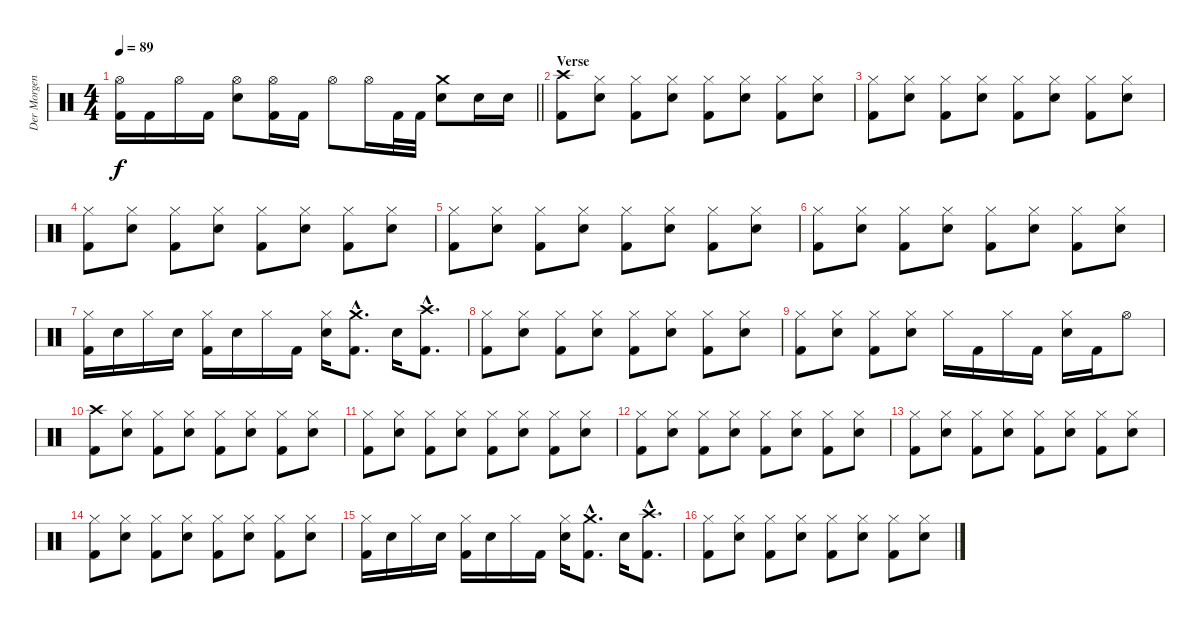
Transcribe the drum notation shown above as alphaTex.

\track ("Der Morgenstern" "Der Morgen") {instrument percussion}
\staff {score}
\articulation defaults
\ts (4 4)
\tempo 89
\clef neutral
\barLineRight lightlight
\ks c
("Hi-Hat (open)" "Kick (hit) 2").16{dy f} "Kick (hit) 2".16 "Hi-Hat (open)".16 "Kick (hit) 2".16 ("Hi-Hat (open)" "Electric Snare (hit)").8 ("Hi-Hat (open)" "Kick (hit) 2").16 "Kick (hit) 2".16 "Hi-Hat (open)".8 "Hi-Hat (open)".16 "Kick (hit) 2".32 "Kick (hit) 2".32 ("Crash medium (hit)" "Electric Snare (hit)").8 "Electric Snare (hit)".16 "Electric Snare (hit)".16 |
\section ("" "Verse")
("Crash high (hit)" "Kick (hit) 2").8 ("Hi-Hat (closed)" "Electric Snare (hit)").8 ("Hi-Hat (closed)" "Kick (hit) 2").8 ("Hi-Hat (closed)" "Electric Snare (hit)").8 ("Hi-Hat (closed)" "Kick (hit) 2").8 ("Hi-Hat (closed)" "Electric Snare (hit)").8 ("Hi-Hat (closed)" "Kick (hit) 2").8 ("Hi-Hat (closed)" "Electric Snare (hit)").8 |
("Hi-Hat (closed)" "Kick (hit) 2").8 ("Hi-Hat (closed)" "Electric Snare (hit)").8 ("Hi-Hat (closed)" "Kick (hit) 2").8 ("Hi-Hat (closed)" "Electric Snare (hit)").8 ("Hi-Hat (closed)" "Kick (hit) 2").8 ("Hi-Hat (closed)" "Electric Snare (hit)").8 ("Hi-Hat (closed)" "Kick (hit) 2").8 ("Hi-Hat (closed)" "Electric Snare (hit)").8 |
("Hi-Hat (closed)" "Kick (hit) 2").8 ("Hi-Hat (closed)" "Electric Snare (hit)").8 ("Hi-Hat (closed)" "Kick (hit) 2").8 ("Hi-Hat (closed)" "Electric Snare (hit)").8 ("Hi-Hat (closed)" "Kick (hit) 2").8 ("Hi-Hat (closed)" "Electric Snare (hit)").8 ("Hi-Hat (closed)" "Kick (hit) 2").8 ("Hi-Hat (closed)" "Electric Snare (hit)").8 |
("Hi-Hat (closed)" "Kick (hit) 2").8 ("Hi-Hat (closed)" "Electric Snare (hit)").8 ("Hi-Hat (closed)" "Kick (hit) 2").8 ("Hi-Hat (closed)" "Electric Snare (hit)").8 ("Hi-Hat (closed)" "Kick (hit) 2").8 ("Hi-Hat (closed)" "Electric Snare (hit)").8 ("Hi-Hat (closed)" "Kick (hit) 2").8 ("Hi-Hat (closed)" "Electric Snare (hit)").8 |
("Hi-Hat (closed)" "Kick (hit) 2").8 ("Hi-Hat (closed)" "Electric Snare (hit)").8 ("Hi-Hat (closed)" "Kick (hit) 2").8 ("Hi-Hat (closed)" "Electric Snare (hit)").8 ("Hi-Hat (closed)" "Kick (hit) 2").8 ("Hi-Hat (closed)" "Electric Snare (hit)").8 ("Hi-Hat (closed)" "Kick (hit) 2").8 ("Hi-Hat (closed)" "Electric Snare (hit)").8 |
("Hi-Hat (closed)" "Kick (hit) 2").16 "Electric Snare (hit)".16 "Hi-Hat (closed)".16 "Electric Snare (hit)".16 ("Hi-Hat (closed)" "Kick (hit) 2").16 "Electric Snare (hit)".16 "Hi-Hat (closed)".16 "Kick (hit) 2".16 ("Hi-Hat (closed)" "Electric Snare (hit)").16 ("Crash medium (hit)"{hac} "Kick (hit) 2"{hac}).8{d} "Electric Snare (hit)".16 ("Crash high (hit)"{hac} "Kick (hit) 2"{hac}).8{d} |
("Hi-Hat (closed)" "Kick (hit) 2").8 ("Hi-Hat (closed)" "Electric Snare (hit)").8 ("Hi-Hat (closed)" "Kick (hit) 2").8 ("Hi-Hat (closed)" "Electric Snare (hit)").8 ("Hi-Hat (closed)" "Kick (hit) 2").8 ("Hi-Hat (closed)" "Electric Snare (hit)").8 ("Hi-Hat (closed)" "Kick (hit) 2").8 ("Hi-Hat (closed)" "Electric Snare (hit)").8 |
("Hi-Hat (closed)" "Kick (hit) 2").8 ("Hi-Hat (closed)" "Electric Snare (hit)").8 ("Hi-Hat (closed)" "Kick (hit) 2").8 ("Hi-Hat (closed)" "Electric Snare (hit)").8 "Hi-Hat (closed)".16 "Kick (hit) 2".16 "Hi-Hat (closed)".16 "Kick (hit) 2".16 ("Hi-Hat (closed)" "Electric Snare (hit)").16 "Kick (hit) 2".16 "Hi-Hat (open)".8 |
("Crash high (hit)" "Kick (hit) 2").8 ("Hi-Hat (closed)" "Electric Snare (hit)").8 ("Hi-Hat (closed)" "Kick (hit) 2").8 ("Hi-Hat (closed)" "Electric Snare (hit)").8 ("Hi-Hat (closed)" "Kick (hit) 2").8 ("Hi-Hat (closed)" "Electric Snare (hit)").8 ("Hi-Hat (closed)" "Kick (hit) 2").8 ("Hi-Hat (closed)" "Electric Snare (hit)").8 |
("Hi-Hat (closed)" "Kick (hit) 2").8 ("Hi-Hat (closed)" "Electric Snare (hit)").8 ("Hi-Hat (closed)" "Kick (hit) 2").8 ("Hi-Hat (closed)" "Electric Snare (hit)").8 ("Hi-Hat (closed)" "Kick (hit) 2").8 ("Hi-Hat (closed)" "Electric Snare (hit)").8 ("Hi-Hat (closed)" "Kick (hit) 2").8 ("Hi-Hat (closed)" "Electric Snare (hit)").8 |
("Hi-Hat (closed)" "Kick (hit) 2").8 ("Hi-Hat (closed)" "Electric Snare (hit)").8 ("Hi-Hat (closed)" "Kick (hit) 2").8 ("Hi-Hat (closed)" "Electric Snare (hit)").8 ("Hi-Hat (closed)" "Kick (hit) 2").8 ("Hi-Hat (closed)" "Electric Snare (hit)").8 ("Hi-Hat (closed)" "Kick (hit) 2").8 ("Hi-Hat (closed)" "Electric Snare (hit)").8 |
("Hi-Hat (closed)" "Kick (hit) 2").8 ("Hi-Hat (closed)" "Electric Snare (hit)").8 ("Hi-Hat (closed)" "Kick (hit) 2").8 ("Hi-Hat (closed)" "Electric Snare (hit)").8 ("Hi-Hat (closed)" "Kick (hit) 2").8 ("Hi-Hat (closed)" "Electric Snare (hit)").8 ("Hi-Hat (closed)" "Kick (hit) 2").8 ("Hi-Hat (closed)" "Electric Snare (hit)").8 |
("Hi-Hat (closed)" "Kick (hit) 2").8 ("Hi-Hat (closed)" "Electric Snare (hit)").8 ("Hi-Hat (closed)" "Kick (hit) 2").8 ("Hi-Hat (closed)" "Electric Snare (hit)").8 ("Hi-Hat (closed)" "Kick (hit) 2").8 ("Hi-Hat (closed)" "Electric Snare (hit)").8 ("Hi-Hat (closed)" "Kick (hit) 2").8 ("Hi-Hat (closed)" "Electric Snare (hit)").8 |
("Hi-Hat (closed)" "Kick (hit) 2").16 "Electric Snare (hit)".16 "Hi-Hat (closed)".16 "Electric Snare (hit)".16 ("Hi-Hat (closed)" "Kick (hit) 2").16 "Electric Snare (hit)".16 "Hi-Hat (closed)".16 "Kick (hit) 2".16 ("Hi-Hat (closed)" "Electric Snare (hit)").16 ("Crash medium (hit)"{hac} "Kick (hit) 2"{hac}).8{d} "Electric Snare (hit)".16 ("Crash high (hit)"{hac} "Kick (hit) 2"{hac}).8{d} |
("Hi-Hat (closed)" "Kick (hit) 2").8 ("Hi-Hat (closed)" "Electric Snare (hit)").8 ("Hi-Hat (closed)" "Kick (hit) 2").8 ("Hi-Hat (closed)" "Electric Snare (hit)").8 ("Hi-Hat (closed)" "Kick (hit) 2").8 ("Hi-Hat (closed)" "Electric Snare (hit)").8 ("Hi-Hat (closed)" "Kick (hit) 2").8 ("Hi-Hat (closed)" "Electric Snare (hit)").8
